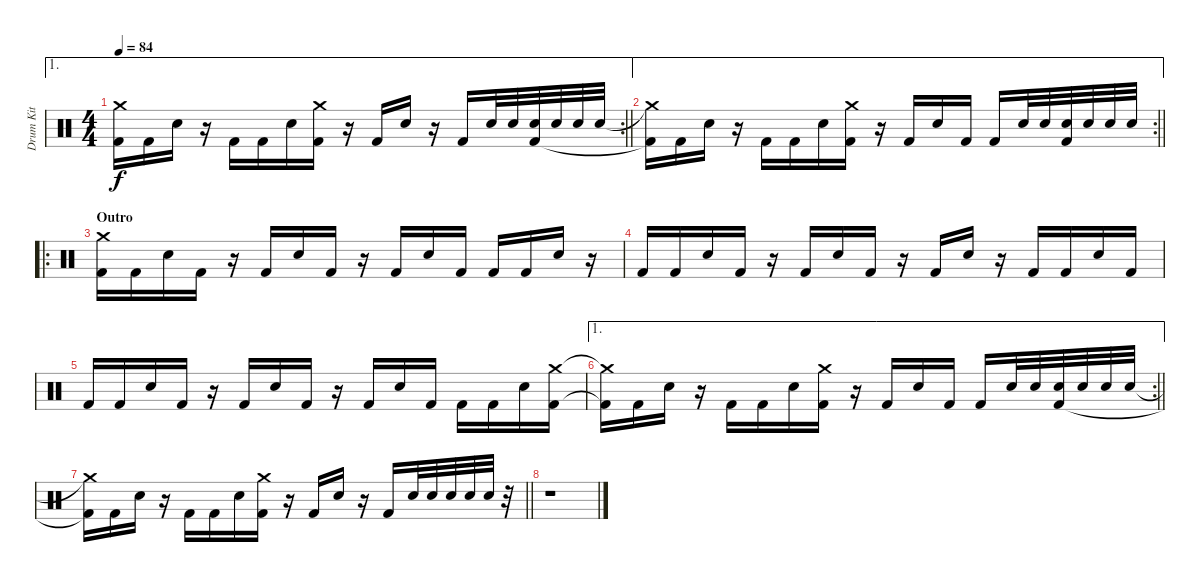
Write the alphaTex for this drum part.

\track ("Drum Kit" "Drum Kit") {instrument percussion}
\staff {score}
\articulation defaults
\ae 1
\rc 2
\ts (4 4)
\tempo 84
\clef neutral
\barLineRight lightlight
\ks c
("Crash medium (hit)"{t} "Kick (hit) 2"{t}).16{dy f} "Kick (hit) 2".16 "Electric Snare (hit)".16 r.16 "Kick (hit) 2".16 "Kick (hit) 2".16 "Electric Snare (hit)".16 ("Crash medium (hit)" "Kick (hit) 2").16 r.16 "Kick (hit) 2".16 "Electric Snare (hit)".16 r.16 "Kick (hit) 2".16 "Electric Snare (hit)".32 "Electric Snare (hit)".32 ("Electric Snare (hit)" "Kick (hit) 2").32 "Electric Snare (hit)".32 "Electric Snare (hit)".32 "Electric Snare (hit)".32 |
\ae 1
\rc 2
\barLineRight lightlight
("Crash medium (hit)"{t} "Kick (hit) 2"{t}).16 "Kick (hit) 2".16 "Electric Snare (hit)".16 r.16 "Kick (hit) 2".16 "Kick (hit) 2".16 "Electric Snare (hit)".16 ("Crash medium (hit)" "Kick (hit) 2").16 r.16 "Kick (hit) 2".16 "Electric Snare (hit)".16 "Kick (hit) 2".16 "Kick (hit) 2".16 "Electric Snare (hit)".32 "Electric Snare (hit)".32 ("Electric Snare (hit)" "Kick (hit) 2").32 "Electric Snare (hit)".32 "Electric Snare (hit)".32 "Electric Snare (hit)".32 |
\ro
\section ("" "Outro")
("Crash medium (hit)" "Kick (hit) 2").16 "Kick (hit) 2".16 "Electric Snare (hit)".16 "Kick (hit) 2".16 r.16 "Kick (hit) 2".16 "Electric Snare (hit)".16 "Kick (hit) 2".16 r.16 "Kick (hit) 2".16 "Electric Snare (hit)".16 "Kick (hit) 2".16 "Kick (hit) 2".16 "Kick (hit) 2".16 "Electric Snare (hit)".16 r.16 |
"Kick (hit) 2".16 "Kick (hit) 2".16 "Electric Snare (hit)".16 "Kick (hit) 2".16 r.16 "Kick (hit) 2".16 "Electric Snare (hit)".16 "Kick (hit) 2".16 r.16 "Kick (hit) 2".16 "Electric Snare (hit)".16 r.16 "Kick (hit) 2".16 "Kick (hit) 2".16 "Electric Snare (hit)".16 "Kick (hit) 2".16 |
"Kick (hit) 2".16 "Kick (hit) 2".16 "Electric Snare (hit)".16 "Kick (hit) 2".16 r.16 "Kick (hit) 2".16 "Electric Snare (hit)".16 "Kick (hit) 2".16 r.16 "Kick (hit) 2".16 "Electric Snare (hit)".16 "Kick (hit) 2".16 "Kick (hit) 2".16 "Kick (hit) 2".16 "Electric Snare (hit)".16 ("Crash medium (hit)" "Kick (hit) 2").16 |
\ae 1
\rc 2
\barLineRight lightlight
("Crash medium (hit)"{t} "Kick (hit) 2"{t}).16 "Kick (hit) 2".16 "Electric Snare (hit)".16 r.16 "Kick (hit) 2".16 "Kick (hit) 2".16 "Electric Snare (hit)".16 ("Crash medium (hit)" "Kick (hit) 2").16 r.16 "Kick (hit) 2".16 "Electric Snare (hit)".16 "Kick (hit) 2".16 "Kick (hit) 2".16 "Electric Snare (hit)".32 "Electric Snare (hit)".32 ("Electric Snare (hit)" "Kick (hit) 2").32 "Electric Snare (hit)".32 "Electric Snare (hit)".32 "Electric Snare (hit)".32 |
\barLineRight lightlight
("Crash medium (hit)"{t} "Kick (hit) 2"{t}).16 "Kick (hit) 2".16 "Electric Snare (hit)".16 r.16 "Kick (hit) 2".16 "Kick (hit) 2".16 "Electric Snare (hit)".16 ("Crash medium (hit)" "Kick (hit) 2").16 r.16 "Kick (hit) 2".16 "Electric Snare (hit)".16 r.16 "Kick (hit) 2".16 "Electric Snare (hit)".32 "Electric Snare (hit)".32 "Electric Snare (hit)".32 "Electric Snare (hit)".32 "Electric Snare (hit)".32 r.32 |
r.1
